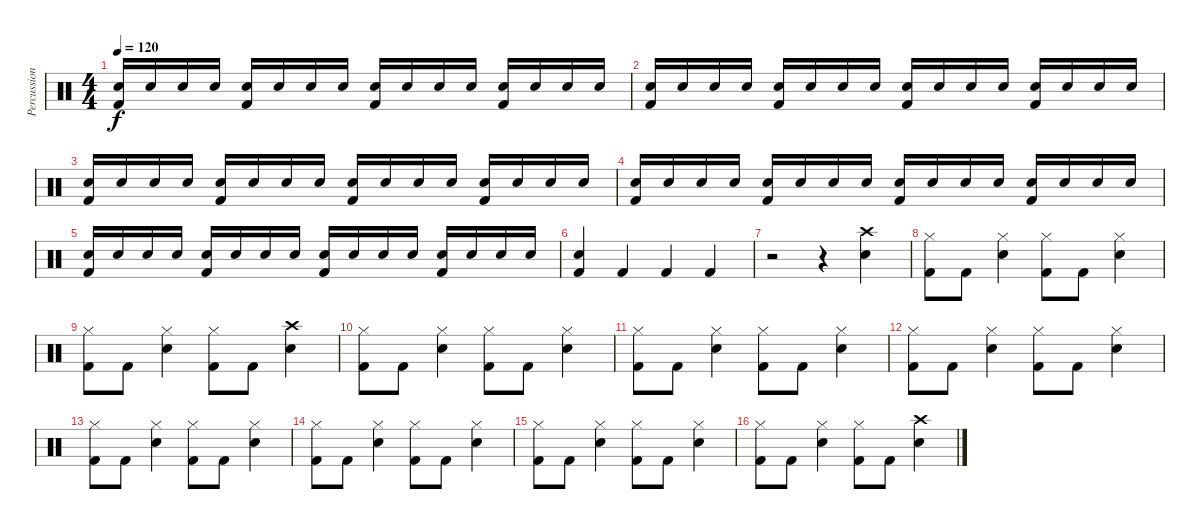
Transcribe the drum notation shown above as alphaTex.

\track ("Percussion" "Percussion") {instrument percussion}
\staff {score}
\articulation defaults
\ts (4 4)
\tempo 120
\clef neutral
\ks c
("Snare (hit) 2" "Kick (hit) 2").16{dy f} "Snare (hit) 2".16 "Snare (hit) 2".16 "Snare (hit) 2".16 ("Snare (hit) 2" "Kick (hit) 2").16 "Snare (hit) 2".16 "Snare (hit) 2".16 "Snare (hit) 2".16 ("Snare (hit) 2" "Kick (hit) 2").16 "Snare (hit) 2".16 "Snare (hit) 2".16 "Snare (hit) 2".16 ("Snare (hit) 2" "Kick (hit) 2").16 "Snare (hit) 2".16 "Snare (hit) 2".16 "Snare (hit) 2".16 |
("Snare (hit) 2" "Kick (hit) 2").16 "Snare (hit) 2".16 "Snare (hit) 2".16 "Snare (hit) 2".16 ("Snare (hit) 2" "Kick (hit) 2").16 "Snare (hit) 2".16 "Snare (hit) 2".16 "Snare (hit) 2".16 ("Snare (hit) 2" "Kick (hit) 2").16 "Snare (hit) 2".16 "Snare (hit) 2".16 "Snare (hit) 2".16 ("Snare (hit) 2" "Kick (hit) 2").16 "Snare (hit) 2".16 "Snare (hit) 2".16 "Snare (hit) 2".16 |
("Snare (hit) 2" "Kick (hit) 2").16 "Snare (hit) 2".16 "Snare (hit) 2".16 "Snare (hit) 2".16 ("Snare (hit) 2" "Kick (hit) 2").16 "Snare (hit) 2".16 "Snare (hit) 2".16 "Snare (hit) 2".16 ("Snare (hit) 2" "Kick (hit) 2").16 "Snare (hit) 2".16 "Snare (hit) 2".16 "Snare (hit) 2".16 ("Snare (hit) 2" "Kick (hit) 2").16 "Snare (hit) 2".16 "Snare (hit) 2".16 "Snare (hit) 2".16 |
("Snare (hit) 2" "Kick (hit) 2").16 "Snare (hit) 2".16 "Snare (hit) 2".16 "Snare (hit) 2".16 ("Snare (hit) 2" "Kick (hit) 2").16 "Snare (hit) 2".16 "Snare (hit) 2".16 "Snare (hit) 2".16 ("Snare (hit) 2" "Kick (hit) 2").16 "Snare (hit) 2".16 "Snare (hit) 2".16 "Snare (hit) 2".16 ("Snare (hit) 2" "Kick (hit) 2").16 "Snare (hit) 2".16 "Snare (hit) 2".16 "Snare (hit) 2".16 |
("Snare (hit) 2" "Kick (hit) 2").16 "Snare (hit) 2".16 "Snare (hit) 2".16 "Snare (hit) 2".16 ("Snare (hit) 2" "Kick (hit) 2").16 "Snare (hit) 2".16 "Snare (hit) 2".16 "Snare (hit) 2".16 ("Snare (hit) 2" "Kick (hit) 2").16 "Snare (hit) 2".16 "Snare (hit) 2".16 "Snare (hit) 2".16 ("Snare (hit) 2" "Kick (hit) 2").16 "Snare (hit) 2".16 "Snare (hit) 2".16 "Snare (hit) 2".16 |
("Snare (hit) 2" "Kick (hit) 2").4 "Kick (hit) 2".4 "Kick (hit) 2".4 "Kick (hit) 2".4 |
r.2 r.4 ("Crash high (hit)" "Snare (hit) 2").4 |
("Hi-Hat (closed)" "Kick (hit) 2").8 "Kick (hit) 2".8 ("Hi-Hat (closed)" "Snare (hit) 2").4 ("Hi-Hat (closed)" "Kick (hit) 2").8 "Kick (hit) 2".8 ("Hi-Hat (closed)" "Snare (hit) 2").4 |
("Hi-Hat (closed)" "Kick (hit) 2").8 "Kick (hit) 2".8 ("Hi-Hat (closed)" "Snare (hit) 2").4 ("Hi-Hat (closed)" "Kick (hit) 2").8 "Kick (hit) 2".8 ("Crash high (hit)" "Snare (hit) 2").4 |
("Hi-Hat (closed)" "Kick (hit) 2").8 "Kick (hit) 2".8 ("Hi-Hat (closed)" "Snare (hit) 2").4 ("Hi-Hat (closed)" "Kick (hit) 2").8 "Kick (hit) 2".8 ("Hi-Hat (closed)" "Snare (hit) 2").4 |
("Hi-Hat (closed)" "Kick (hit) 2").8 "Kick (hit) 2".8 ("Hi-Hat (closed)" "Snare (hit) 2").4 ("Hi-Hat (closed)" "Kick (hit) 2").8 "Kick (hit) 2".8 ("Hi-Hat (closed)" "Snare (hit) 2").4 |
("Hi-Hat (closed)" "Kick (hit) 2").8 "Kick (hit) 2".8 ("Hi-Hat (closed)" "Snare (hit) 2").4 ("Hi-Hat (closed)" "Kick (hit) 2").8 "Kick (hit) 2".8 ("Hi-Hat (closed)" "Snare (hit) 2").4 |
("Hi-Hat (closed)" "Kick (hit) 2").8 "Kick (hit) 2".8 ("Hi-Hat (closed)" "Snare (hit) 2").4 ("Hi-Hat (closed)" "Kick (hit) 2").8 "Kick (hit) 2".8 ("Hi-Hat (closed)" "Snare (hit) 2").4 |
("Hi-Hat (closed)" "Kick (hit) 2").8 "Kick (hit) 2".8 ("Hi-Hat (closed)" "Snare (hit) 2").4 ("Hi-Hat (closed)" "Kick (hit) 2").8 "Kick (hit) 2".8 ("Hi-Hat (closed)" "Snare (hit) 2").4 |
("Hi-Hat (closed)" "Kick (hit) 2").8 "Kick (hit) 2".8 ("Hi-Hat (closed)" "Snare (hit) 2").4 ("Hi-Hat (closed)" "Kick (hit) 2").8 "Kick (hit) 2".8 ("Hi-Hat (closed)" "Snare (hit) 2").4 |
("Hi-Hat (closed)" "Kick (hit) 2").8 "Kick (hit) 2".8 ("Hi-Hat (closed)" "Snare (hit) 2").4 ("Hi-Hat (closed)" "Kick (hit) 2").8 "Kick (hit) 2".8 ("Crash high (hit)" "Snare (hit) 2").4
